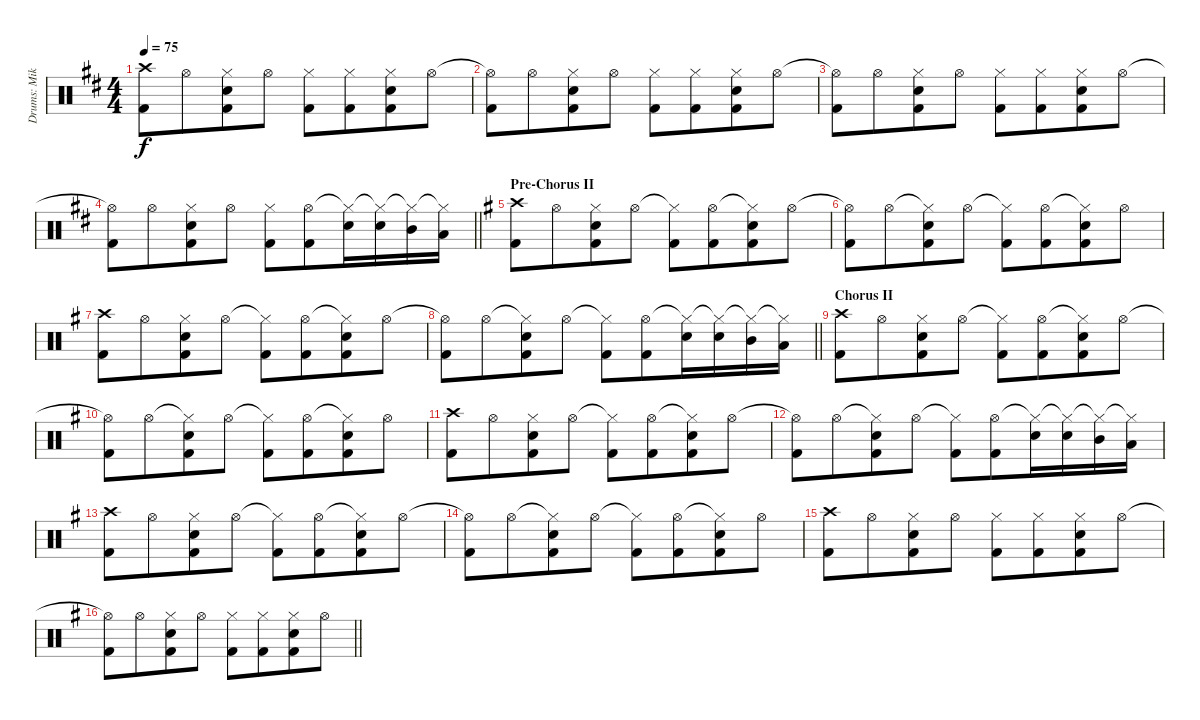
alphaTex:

\track ("Drums: Mike" "Drums: Mik") {instrument percussion}
\staff {score}
\articulation defaults
\ts (4 4)
\tempo 75
\clef neutral
\ks d
("Crash high (hit)" "Kick (hit) 2").8{dy f} "Hi-Hat (open)".8{beam merge} ("Hi-Hat (closed)" "Electric Snare (hit)" "Kick (hit) 2").8 "Hi-Hat (open)".8 ("Hi-Hat (closed)" "Kick (hit) 2").8 ("Hi-Hat (closed)" "Kick (hit) 2").8{beam merge} ("Hi-Hat (closed)" "Electric Snare (hit)" "Kick (hit) 2").8 "Hi-Hat (open)".8 |
("Hi-Hat (open)"{t} "Kick (hit) 2").8 "Hi-Hat (open)".8{beam merge} ("Hi-Hat (closed)" "Electric Snare (hit)" "Kick (hit) 2").8 "Hi-Hat (open)".8 ("Hi-Hat (closed)" "Kick (hit) 2").8 ("Hi-Hat (closed)" "Kick (hit) 2").8{beam merge} ("Hi-Hat (closed)" "Electric Snare (hit)" "Kick (hit) 2").8 "Hi-Hat (open)".8 |
("Hi-Hat (open)"{t} "Kick (hit) 2").8 "Hi-Hat (open)".8{beam merge} ("Hi-Hat (closed)" "Electric Snare (hit)" "Kick (hit) 2").8 "Hi-Hat (open)".8 ("Hi-Hat (closed)" "Kick (hit) 2").8 ("Hi-Hat (closed)" "Kick (hit) 2").8{beam merge} ("Hi-Hat (closed)" "Electric Snare (hit)" "Kick (hit) 2").8 "Hi-Hat (open)".8 |
\barLineRight lightlight
("Hi-Hat (open)"{t} "Kick (hit) 2").8 "Hi-Hat (open)".8{beam merge} ("Hi-Hat (closed)" "Electric Snare (hit)" "Kick (hit) 2").8 "Hi-Hat (open)".8 ("Hi-Hat (closed)" "Kick (hit) 2").8 ("Hi-Hat (open)" "Kick (hit) 2").8{beam merge} ("Hi-Hat (closed)"{t} "Electric Snare (hit)").16{beam merge} ("Hi-Hat (closed)"{t} "Electric Snare (hit)").16{beam merge} ("Hi-Hat (closed)"{t} "Mid Tom (hit)").16{beam merge} ("Hi-Hat (closed)"{t} "Low Tom (hit)").16 |
\section ("" "Pre-Chorus II")
\ks g
("Crash high (hit)" "Kick (hit) 2").8 "Hi-Hat (open)".8{beam merge} ("Hi-Hat (closed)" "Electric Snare (hit)" "Kick (hit) 2").8 "Hi-Hat (open)".8 ("Hi-Hat (closed)"{t} "Kick (hit) 2").8 ("Hi-Hat (open)" "Kick (hit) 2").8{beam merge} ("Hi-Hat (closed)"{t} "Electric Snare (hit)" "Kick (hit) 2").8 "Hi-Hat (open)".8 |
("Hi-Hat (open)"{t} "Kick (hit) 2").8 "Hi-Hat (open)".8{beam merge} ("Hi-Hat (closed)"{t} "Electric Snare (hit)" "Kick (hit) 2").8 "Hi-Hat (open)".8 ("Hi-Hat (closed)"{t} "Kick (hit) 2").8 ("Hi-Hat (open)" "Kick (hit) 2").8{beam merge} ("Hi-Hat (closed)"{t} "Electric Snare (hit)" "Kick (hit) 2").8 "Hi-Hat (open)".8 |
("Crash high (hit)" "Kick (hit) 2").8 "Hi-Hat (open)".8{beam merge} ("Hi-Hat (closed)" "Electric Snare (hit)" "Kick (hit) 2").8 "Hi-Hat (open)".8 ("Hi-Hat (closed)"{t} "Kick (hit) 2").8 ("Hi-Hat (open)" "Kick (hit) 2").8{beam merge} ("Hi-Hat (closed)"{t} "Electric Snare (hit)" "Kick (hit) 2").8 "Hi-Hat (open)".8 |
\barLineRight lightlight
("Hi-Hat (open)"{t} "Kick (hit) 2").8 "Hi-Hat (open)".8{beam merge} ("Hi-Hat (closed)"{t} "Electric Snare (hit)" "Kick (hit) 2").8 "Hi-Hat (open)".8 ("Hi-Hat (closed)"{t} "Kick (hit) 2").8 ("Hi-Hat (open)" "Kick (hit) 2").8{beam merge} ("Hi-Hat (closed)"{t} "Electric Snare (hit)").16{beam merge} ("Hi-Hat (closed)"{t} "Electric Snare (hit)").16{beam merge} ("Hi-Hat (closed)"{t} "Mid Tom (hit)").16{beam merge} ("Hi-Hat (closed)"{t} "Low Tom (hit)").16 |
\section ("" "Chorus II")
("Crash high (hit)" "Kick (hit) 2").8 "Hi-Hat (open)".8{beam merge} ("Hi-Hat (closed)" "Electric Snare (hit)" "Kick (hit) 2").8 "Hi-Hat (open)".8 ("Hi-Hat (closed)"{t} "Kick (hit) 2").8 ("Hi-Hat (open)" "Kick (hit) 2").8{beam merge} ("Hi-Hat (closed)"{t} "Electric Snare (hit)" "Kick (hit) 2").8 "Hi-Hat (open)".8 |
("Hi-Hat (open)"{t} "Kick (hit) 2").8 "Hi-Hat (open)".8{beam merge} ("Hi-Hat (closed)"{t} "Electric Snare (hit)" "Kick (hit) 2").8 "Hi-Hat (open)".8 ("Hi-Hat (closed)"{t} "Kick (hit) 2").8 ("Hi-Hat (open)" "Kick (hit) 2").8{beam merge} ("Hi-Hat (closed)"{t} "Electric Snare (hit)" "Kick (hit) 2").8 "Hi-Hat (open)".8 |
("Crash high (hit)" "Kick (hit) 2").8 "Hi-Hat (open)".8{beam merge} ("Hi-Hat (closed)" "Electric Snare (hit)" "Kick (hit) 2").8 "Hi-Hat (open)".8 ("Hi-Hat (closed)"{t} "Kick (hit) 2").8 ("Hi-Hat (open)" "Kick (hit) 2").8{beam merge} ("Hi-Hat (closed)"{t} "Electric Snare (hit)" "Kick (hit) 2").8 "Hi-Hat (open)".8 |
("Hi-Hat (open)"{t} "Kick (hit) 2").8 "Hi-Hat (open)".8{beam merge} ("Hi-Hat (closed)"{t} "Electric Snare (hit)" "Kick (hit) 2").8 "Hi-Hat (open)".8 ("Hi-Hat (closed)"{t} "Kick (hit) 2").8 ("Hi-Hat (open)" "Kick (hit) 2").8{beam merge} ("Hi-Hat (closed)"{t} "Electric Snare (hit)").16{beam merge} ("Hi-Hat (closed)"{t} "Electric Snare (hit)").16{beam merge} ("Hi-Hat (closed)"{t} "Mid Tom (hit)").16{beam merge} ("Hi-Hat (closed)"{t} "Low Tom (hit)").16 |
("Crash high (hit)" "Kick (hit) 2").8 "Hi-Hat (open)".8{beam merge} ("Hi-Hat (closed)" "Electric Snare (hit)" "Kick (hit) 2").8 "Hi-Hat (open)".8 ("Hi-Hat (closed)"{t} "Kick (hit) 2").8 ("Hi-Hat (open)" "Kick (hit) 2").8{beam merge} ("Hi-Hat (closed)"{t} "Electric Snare (hit)" "Kick (hit) 2").8 "Hi-Hat (open)".8 |
("Hi-Hat (open)"{t} "Kick (hit) 2").8 "Hi-Hat (open)".8{beam merge} ("Hi-Hat (closed)"{t} "Electric Snare (hit)" "Kick (hit) 2").8 "Hi-Hat (open)".8 ("Hi-Hat (closed)"{t} "Kick (hit) 2").8 ("Hi-Hat (open)" "Kick (hit) 2").8{beam merge} ("Hi-Hat (closed)"{t} "Electric Snare (hit)" "Kick (hit) 2").8 "Hi-Hat (open)".8 |
("Crash high (hit)" "Kick (hit) 2").8 "Hi-Hat (open)".8{beam merge} ("Hi-Hat (closed)" "Electric Snare (hit)" "Kick (hit) 2").8 "Hi-Hat (open)".8 ("Hi-Hat (closed)" "Kick (hit) 2").8 ("Hi-Hat (closed)" "Kick (hit) 2").8{beam merge} ("Hi-Hat (closed)" "Electric Snare (hit)" "Kick (hit) 2").8 "Hi-Hat (open)".8 |
\barLineRight lightlight
("Hi-Hat (open)"{t} "Kick (hit) 2").8 "Hi-Hat (open)".8{beam merge} ("Hi-Hat (closed)" "Electric Snare (hit)" "Kick (hit) 2").8 "Hi-Hat (open)".8 ("Hi-Hat (closed)" "Kick (hit) 2").8 ("Hi-Hat (closed)" "Kick (hit) 2").8{beam merge} ("Hi-Hat (closed)" "Electric Snare (hit)" "Kick (hit) 2").8 "Hi-Hat (open)".8
